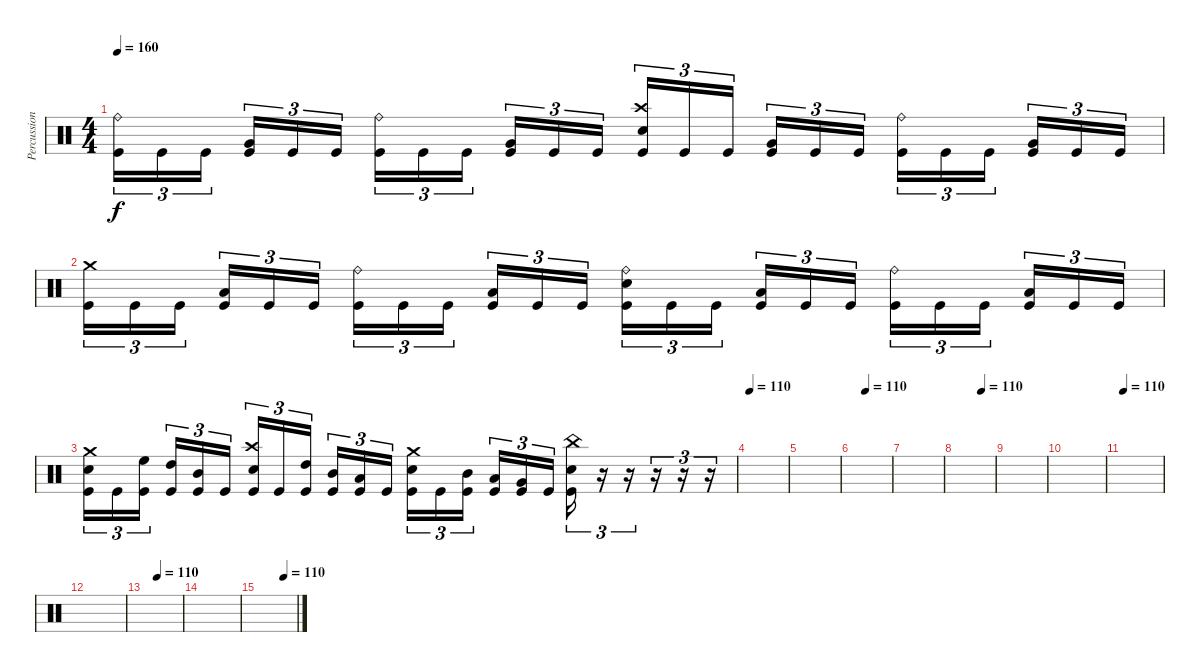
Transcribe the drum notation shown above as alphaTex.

\track ("Percussion" "Percussion") {instrument percussion}
\staff {score}
\articulation defaults
\ts (4 4)
\tempo 160
\clef neutral
\ks c
("Ride (bell)" "Kick (hit)").16{tu (3 2) dy f} "Kick (hit)".16{tu (3 2)} "Kick (hit)".16{tu (3 2) beam splitsecondary} ("Very Low Tom (hit)" "Kick (hit)").16{tu (3 2)} "Kick (hit)".16{tu (3 2)} "Kick (hit)".16{tu (3 2)} ("Ride (bell)" "Kick (hit)").16{tu (3 2)} "Kick (hit)".16{tu (3 2)} "Kick (hit)".16{tu (3 2) beam splitsecondary} ("Very Low Tom (hit)" "Kick (hit)").16{tu (3 2)} "Kick (hit)".16{tu (3 2)} "Kick (hit)".16{tu (3 2)} ("Crash high (hit)" "Snare (hit) 2" "Kick (hit)").16{tu (3 2)} "Kick (hit)".16{tu (3 2)} "Kick (hit)".16{tu (3 2) beam splitsecondary} ("Very Low Tom (hit)" "Kick (hit)").16{tu (3 2)} "Kick (hit)".16{tu (3 2)} "Kick (hit)".16{tu (3 2)} ("Ride (bell)" "Kick (hit)").16{tu (3 2)} "Kick (hit)".16{tu (3 2)} "Kick (hit)".16{tu (3 2) beam splitsecondary} ("Very Low Tom (hit)" "Kick (hit)").16{tu (3 2)} "Kick (hit)".16{tu (3 2)} "Kick (hit)".16{tu (3 2)} |
("Crash medium (hit)" "Kick (hit)").16{tu (3 2)} "Kick (hit)".16{tu (3 2)} "Kick (hit)".16{tu (3 2) beam splitsecondary} ("Low Floor Tom (hit)" "Kick (hit)").16{tu (3 2)} "Kick (hit)".16{tu (3 2)} "Kick (hit)".16{tu (3 2)} ("Ride (bell)" "Kick (hit)").16{tu (3 2)} "Kick (hit)".16{tu (3 2)} "Kick (hit)".16{tu (3 2) beam splitsecondary} ("Low Floor Tom (hit)" "Kick (hit)").16{tu (3 2)} "Kick (hit)".16{tu (3 2)} "Kick (hit)".16{tu (3 2)} ("Ride (bell)" "Snare (hit) 2" "Kick (hit)").16{tu (3 2)} "Kick (hit)".16{tu (3 2)} "Kick (hit)".16{tu (3 2) beam splitsecondary} ("Low Floor Tom (hit)" "Kick (hit)").16{tu (3 2)} "Kick (hit)".16{tu (3 2)} "Kick (hit)".16{tu (3 2)} ("Ride (bell)" "Kick (hit)").16{tu (3 2)} "Kick (hit)".16{tu (3 2)} "Kick (hit)".16{tu (3 2) beam splitsecondary} ("Low Floor Tom (hit)" "Kick (hit)").16{tu (3 2)} "Kick (hit)".16{tu (3 2)} "Kick (hit)".16{tu (3 2)} |
("Crash medium (hit)" "Snare (hit) 2" "Kick (hit)").16{tu (3 2)} "Kick (hit)".16{tu (3 2)} ("High Floor Tom (hit)" "Kick (hit)").16{tu (3 2) beam splitsecondary} ("High Tom (hit)" "Kick (hit)").16{tu (3 2)} ("Mid Tom (hit)" "Kick (hit)").16{tu (3 2)} "Kick (hit)".16{tu (3 2)} ("Crash high (hit)" "Snare (hit) 2" "Kick (hit)").16{tu (3 2)} "Kick (hit)".16{tu (3 2)} ("High Tom (hit)" "Kick (hit)").16{tu (3 2) beam splitsecondary} ("Mid Tom (hit)" "Kick (hit)").16{tu (3 2)} ("Low Tom (hit)" "Kick (hit)").16{tu (3 2)} "Kick (hit)".16{tu (3 2)} ("Crash medium (hit)" "Snare (hit) 2" "Kick (hit)").16{tu (3 2)} "Kick (hit)".16{tu (3 2)} ("Mid Tom (hit)" "Kick (hit)").16{tu (3 2) beam splitsecondary} ("Low Tom (hit)" "Kick (hit)").16{tu (3 2)} ("Very Low Tom (hit)" "Kick (hit)").16{tu (3 2)} "Kick (hit)".16{tu (3 2)} ("China (hit)" "Snare (hit) 2" "Kick (hit)").16{tu (3 2)} r.16{tu (3 2)} r.16{tu (3 2)} r.16{tu (3 2)} r.16{tu (3 2)} r.16{tu (3 2)} |
\tempo 110
|
|
\tempo (110 0.3333333333333333)
|
|
\tempo (110 0.6666666666666666)
|
|
|
\tempo 110
|
|
\tempo (110 0.3333333333333333)
|
|
\tempo (110 0.6666666666666666)
